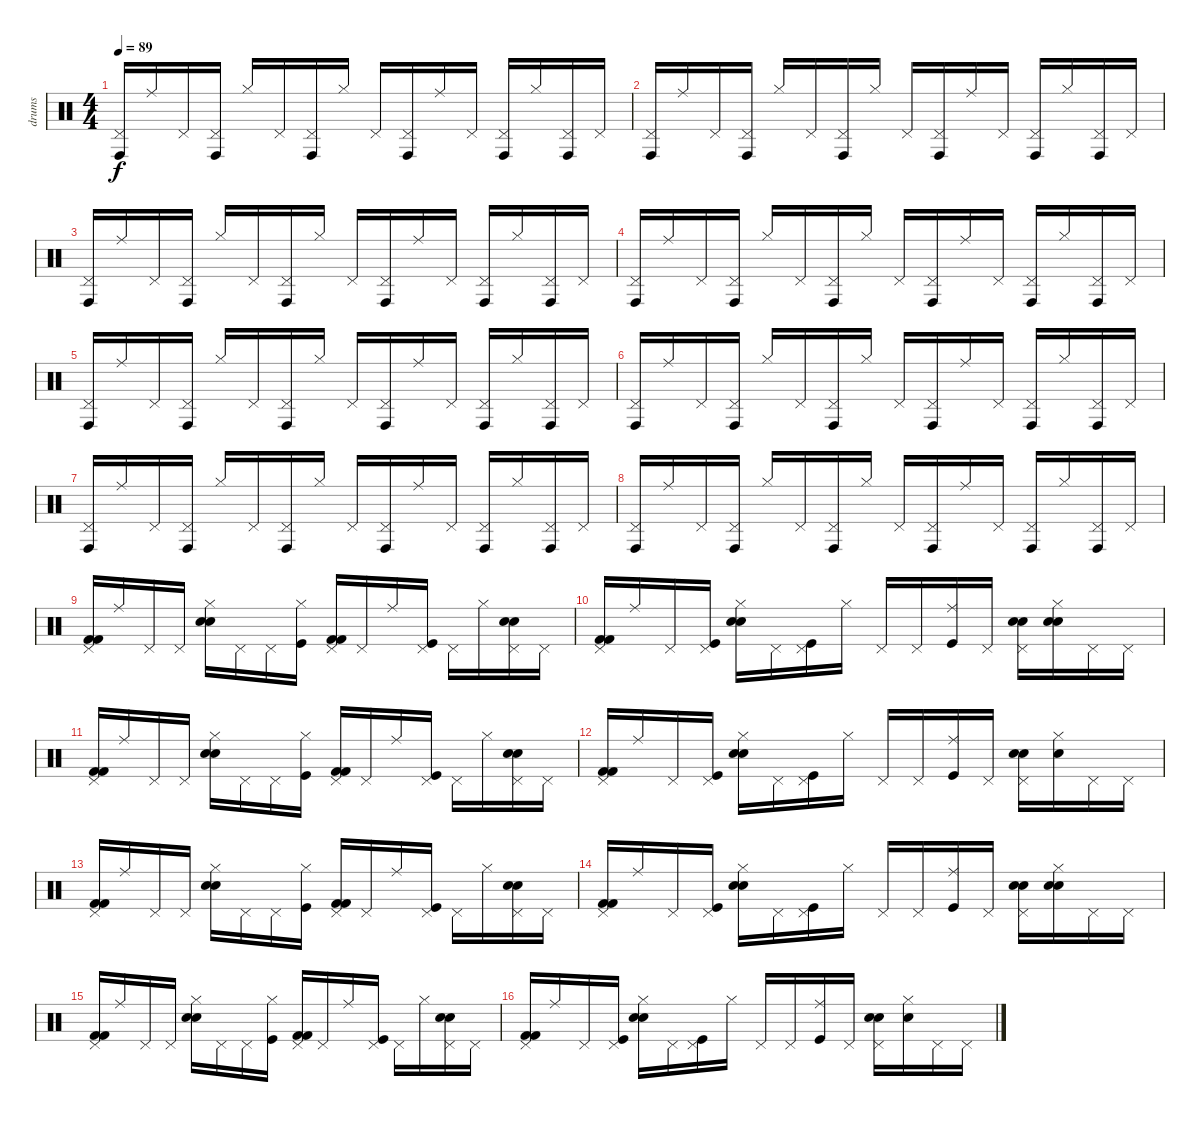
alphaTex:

\track ("drums" "drums") {instrument percussion}
\staff {score}
\articulation defaults
\ts (4 4)
\tempo 89
\clef neutral
\ks c
("Pedal Hi-Hat (hit)" "Conga high (hit)").16{dy f} "Ride (middle)".16 "Pedal Hi-Hat (hit)".16 ("Pedal Hi-Hat (hit)" "Conga high (hit)").16 "Hi-Hat (closed)".16 "Pedal Hi-Hat (hit)".16 ("Conga high (hit)" "Pedal Hi-Hat (hit)").16 "Hi-Hat (closed)".16 "Pedal Hi-Hat (hit)".16 ("Pedal Hi-Hat (hit)" "Conga high (hit)").16 "Ride (middle)".16 "Pedal Hi-Hat (hit)".16 ("Pedal Hi-Hat (hit)" "Conga high (hit)").16 "Hi-Hat (closed)".16 ("Pedal Hi-Hat (hit)" "Conga high (hit)").16 "Pedal Hi-Hat (hit)".16 |
("Pedal Hi-Hat (hit)" "Conga high (hit)").16 "Ride (middle)".16 "Pedal Hi-Hat (hit)".16 ("Pedal Hi-Hat (hit)" "Conga high (hit)").16 "Hi-Hat (closed)".16 "Pedal Hi-Hat (hit)".16 ("Pedal Hi-Hat (hit)" "Conga high (hit)").16 "Hi-Hat (closed)".16 "Pedal Hi-Hat (hit)".16 ("Pedal Hi-Hat (hit)" "Conga high (hit)").16 "Ride (middle)".16 "Pedal Hi-Hat (hit)".16 ("Pedal Hi-Hat (hit)" "Conga high (hit)").16 "Hi-Hat (closed)".16 ("Pedal Hi-Hat (hit)" "Conga high (hit)").16 "Pedal Hi-Hat (hit)".16 |
("Pedal Hi-Hat (hit)" "Conga high (hit)").16 "Ride (middle)".16 "Pedal Hi-Hat (hit)".16 ("Pedal Hi-Hat (hit)" "Conga high (hit)").16 "Hi-Hat (closed)".16 "Pedal Hi-Hat (hit)".16 ("Pedal Hi-Hat (hit)" "Conga high (hit)").16 "Hi-Hat (closed)".16 "Pedal Hi-Hat (hit)".16 ("Pedal Hi-Hat (hit)" "Conga high (hit)").16 "Ride (middle)".16 "Pedal Hi-Hat (hit)".16 ("Pedal Hi-Hat (hit)" "Conga high (hit)").16 "Hi-Hat (closed)".16 ("Pedal Hi-Hat (hit)" "Conga high (hit)").16 "Pedal Hi-Hat (hit)".16 |
("Pedal Hi-Hat (hit)" "Conga high (hit)").16 "Ride (middle)".16 "Pedal Hi-Hat (hit)".16 ("Pedal Hi-Hat (hit)" "Conga high (hit)").16 "Hi-Hat (closed)".16 "Pedal Hi-Hat (hit)".16 ("Pedal Hi-Hat (hit)" "Conga high (hit)").16 "Hi-Hat (closed)".16 "Pedal Hi-Hat (hit)".16 ("Pedal Hi-Hat (hit)" "Conga high (hit)").16 "Ride (middle)".16 "Pedal Hi-Hat (hit)".16 ("Pedal Hi-Hat (hit)" "Conga high (hit)").16 "Hi-Hat (closed)".16 ("Pedal Hi-Hat (hit)" "Conga high (hit)").16 "Pedal Hi-Hat (hit)".16 |
("Pedal Hi-Hat (hit)" "Conga high (hit)").16 "Ride (middle)".16 "Pedal Hi-Hat (hit)".16 ("Pedal Hi-Hat (hit)" "Conga high (hit)").16 "Hi-Hat (closed)".16 "Pedal Hi-Hat (hit)".16 ("Conga high (hit)" "Pedal Hi-Hat (hit)").16 "Hi-Hat (closed)".16 "Pedal Hi-Hat (hit)".16 ("Pedal Hi-Hat (hit)" "Conga high (hit)").16 "Ride (middle)".16 "Pedal Hi-Hat (hit)".16 ("Pedal Hi-Hat (hit)" "Conga high (hit)").16 "Hi-Hat (closed)".16 ("Pedal Hi-Hat (hit)" "Conga high (hit)").16 "Pedal Hi-Hat (hit)".16 |
("Pedal Hi-Hat (hit)" "Conga high (hit)").16 "Ride (middle)".16 "Pedal Hi-Hat (hit)".16 ("Pedal Hi-Hat (hit)" "Conga high (hit)").16 "Hi-Hat (closed)".16 "Pedal Hi-Hat (hit)".16 ("Pedal Hi-Hat (hit)" "Conga high (hit)").16 "Hi-Hat (closed)".16 "Pedal Hi-Hat (hit)".16 ("Pedal Hi-Hat (hit)" "Conga high (hit)").16 "Ride (middle)".16 "Pedal Hi-Hat (hit)".16 ("Pedal Hi-Hat (hit)" "Conga high (hit)").16 "Hi-Hat (closed)".16 ("Pedal Hi-Hat (hit)" "Conga high (hit)").16 "Pedal Hi-Hat (hit)".16 |
("Pedal Hi-Hat (hit)" "Conga high (hit)").16 "Ride (middle)".16 "Pedal Hi-Hat (hit)".16 ("Pedal Hi-Hat (hit)" "Conga high (hit)").16 "Hi-Hat (closed)".16 "Pedal Hi-Hat (hit)".16 ("Pedal Hi-Hat (hit)" "Conga high (hit)").16 "Hi-Hat (closed)".16 "Pedal Hi-Hat (hit)".16 ("Pedal Hi-Hat (hit)" "Conga high (hit)").16 "Ride (middle)".16 "Pedal Hi-Hat (hit)".16 ("Pedal Hi-Hat (hit)" "Conga high (hit)").16 "Hi-Hat (closed)".16 ("Pedal Hi-Hat (hit)" "Conga high (hit)").16 "Pedal Hi-Hat (hit)".16 |
("Pedal Hi-Hat (hit)" "Conga high (hit)").16 "Ride (middle)".16 "Pedal Hi-Hat (hit)".16 ("Pedal Hi-Hat (hit)" "Conga high (hit)").16 "Hi-Hat (closed)".16 "Pedal Hi-Hat (hit)".16 ("Pedal Hi-Hat (hit)" "Conga high (hit)").16 "Hi-Hat (closed)".16 "Pedal Hi-Hat (hit)".16 ("Pedal Hi-Hat (hit)" "Conga high (hit)").16 "Ride (middle)".16 "Pedal Hi-Hat (hit)".16 ("Pedal Hi-Hat (hit)" "Conga high (hit)").16 "Hi-Hat (closed)".16 ("Pedal Hi-Hat (hit)" "Conga high (hit)").16 "Pedal Hi-Hat (hit)".16 |
("Kick (hit) 2" "Kick (hit) 2" "Pedal Hi-Hat (hit)").16 "Ride (middle)".16 "Pedal Hi-Hat (hit)".16 "Pedal Hi-Hat (hit)".16 ("Hand Clap (hit)" "Hand Clap (hit)" "Hi-Hat (closed)").16 "Pedal Hi-Hat (hit)".16 "Pedal Hi-Hat (hit)".16 ("Hi-Hat (closed)" "Kick (hit)").16 ("Kick (hit) 2" "Kick (hit) 2" "Pedal Hi-Hat (hit)").16 "Pedal Hi-Hat (hit)".16 "Ride (middle)".16 ("Kick (hit)" "Pedal Hi-Hat (hit)").16 "Pedal Hi-Hat (hit)".16 "Hi-Hat (closed)".16 ("Hand Clap (hit)" "Hand Clap (hit)" "Pedal Hi-Hat (hit)").16 "Pedal Hi-Hat (hit)".16 |
("Pedal Hi-Hat (hit)" "Kick (hit) 2" "Kick (hit) 2").16 "Ride (middle)".16 "Pedal Hi-Hat (hit)".16 ("Pedal Hi-Hat (hit)" "Kick (hit)").16 ("Hi-Hat (closed)" "Hand Clap (hit)" "Hand Clap (hit)").16 "Pedal Hi-Hat (hit)".16 ("Kick (hit)" "Pedal Hi-Hat (hit)").16 "Hi-Hat (closed)".16 "Pedal Hi-Hat (hit)".16 "Pedal Hi-Hat (hit)".16 ("Ride (middle)" "Kick (hit)").16 "Pedal Hi-Hat (hit)".16 ("Hand Clap (hit)" "Hand Clap (hit)" "Pedal Hi-Hat (hit)").16 ("Hand Clap (hit)" "Hi-Hat (closed)" "Hand Clap (hit)").16 "Pedal Hi-Hat (hit)".16 "Pedal Hi-Hat (hit)".16 |
("Pedal Hi-Hat (hit)" "Kick (hit) 2" "Kick (hit) 2").16 "Ride (middle)".16 "Pedal Hi-Hat (hit)".16 "Pedal Hi-Hat (hit)".16 ("Hi-Hat (closed)" "Hand Clap (hit)" "Hand Clap (hit)").16 "Pedal Hi-Hat (hit)".16 "Pedal Hi-Hat (hit)".16 ("Hi-Hat (closed)" "Kick (hit)").16 ("Pedal Hi-Hat (hit)" "Kick (hit) 2" "Kick (hit) 2").16 "Pedal Hi-Hat (hit)".16 "Ride (middle)".16 ("Pedal Hi-Hat (hit)" "Kick (hit)").16 "Pedal Hi-Hat (hit)".16 "Hi-Hat (closed)".16 ("Pedal Hi-Hat (hit)" "Hand Clap (hit)" "Hand Clap (hit)").16 "Pedal Hi-Hat (hit)".16 |
("Pedal Hi-Hat (hit)" "Kick (hit) 2" "Kick (hit) 2").16 "Ride (middle)".16 "Pedal Hi-Hat (hit)".16 ("Pedal Hi-Hat (hit)" "Kick (hit)").16 ("Hi-Hat (closed)" "Hand Clap (hit)" "Hand Clap (hit)").16 "Pedal Hi-Hat (hit)".16 ("Pedal Hi-Hat (hit)" "Kick (hit)").16 "Hi-Hat (closed)".16 "Pedal Hi-Hat (hit)".16 "Pedal Hi-Hat (hit)".16 ("Ride (middle)" "Kick (hit)").16 "Pedal Hi-Hat (hit)".16 ("Pedal Hi-Hat (hit)" "Hand Clap (hit)" "Hand Clap (hit)").16 ("Hi-Hat (closed)" "Hand Clap (hit)").16 "Pedal Hi-Hat (hit)".16 "Pedal Hi-Hat (hit)".16 |
("Kick (hit) 2" "Kick (hit) 2" "Pedal Hi-Hat (hit)").16 "Ride (middle)".16 "Pedal Hi-Hat (hit)".16 "Pedal Hi-Hat (hit)".16 ("Hand Clap (hit)" "Hand Clap (hit)" "Hi-Hat (closed)").16 "Pedal Hi-Hat (hit)".16 "Pedal Hi-Hat (hit)".16 ("Hi-Hat (closed)" "Kick (hit)").16 ("Kick (hit) 2" "Kick (hit) 2" "Pedal Hi-Hat (hit)").16 "Pedal Hi-Hat (hit)".16 "Ride (middle)".16 ("Kick (hit)" "Pedal Hi-Hat (hit)").16 "Pedal Hi-Hat (hit)".16 "Hi-Hat (closed)".16 ("Hand Clap (hit)" "Hand Clap (hit)" "Pedal Hi-Hat (hit)").16 "Pedal Hi-Hat (hit)".16 |
("Pedal Hi-Hat (hit)" "Kick (hit) 2" "Kick (hit) 2").16 "Ride (middle)".16 "Pedal Hi-Hat (hit)".16 ("Pedal Hi-Hat (hit)" "Kick (hit)").16 ("Hi-Hat (closed)" "Hand Clap (hit)" "Hand Clap (hit)").16 "Pedal Hi-Hat (hit)".16 ("Kick (hit)" "Pedal Hi-Hat (hit)").16 "Hi-Hat (closed)".16 "Pedal Hi-Hat (hit)".16 "Pedal Hi-Hat (hit)".16 ("Ride (middle)" "Kick (hit)").16 "Pedal Hi-Hat (hit)".16 ("Hand Clap (hit)" "Hand Clap (hit)" "Pedal Hi-Hat (hit)").16 ("Hand Clap (hit)" "Hi-Hat (closed)" "Hand Clap (hit)").16 "Pedal Hi-Hat (hit)".16 "Pedal Hi-Hat (hit)".16 |
("Pedal Hi-Hat (hit)" "Kick (hit) 2" "Kick (hit) 2").16 "Ride (middle)".16 "Pedal Hi-Hat (hit)".16 "Pedal Hi-Hat (hit)".16 ("Hi-Hat (closed)" "Hand Clap (hit)" "Hand Clap (hit)").16 "Pedal Hi-Hat (hit)".16 "Pedal Hi-Hat (hit)".16 ("Hi-Hat (closed)" "Kick (hit)").16 ("Pedal Hi-Hat (hit)" "Kick (hit) 2" "Kick (hit) 2").16 "Pedal Hi-Hat (hit)".16 "Ride (middle)".16 ("Pedal Hi-Hat (hit)" "Kick (hit)").16 "Pedal Hi-Hat (hit)".16 "Hi-Hat (closed)".16 ("Pedal Hi-Hat (hit)" "Hand Clap (hit)" "Hand Clap (hit)").16 "Pedal Hi-Hat (hit)".16 |
("Pedal Hi-Hat (hit)" "Kick (hit) 2" "Kick (hit) 2").16 "Ride (middle)".16 "Pedal Hi-Hat (hit)".16 ("Pedal Hi-Hat (hit)" "Kick (hit)").16 ("Hi-Hat (closed)" "Hand Clap (hit)" "Hand Clap (hit)").16 "Pedal Hi-Hat (hit)".16 ("Pedal Hi-Hat (hit)" "Kick (hit)").16 "Hi-Hat (closed)".16 "Pedal Hi-Hat (hit)".16 "Pedal Hi-Hat (hit)".16 ("Ride (middle)" "Kick (hit)").16 "Pedal Hi-Hat (hit)".16 ("Pedal Hi-Hat (hit)" "Hand Clap (hit)" "Hand Clap (hit)").16 ("Hi-Hat (closed)" "Hand Clap (hit)").16 "Pedal Hi-Hat (hit)".16 "Pedal Hi-Hat (hit)".16
